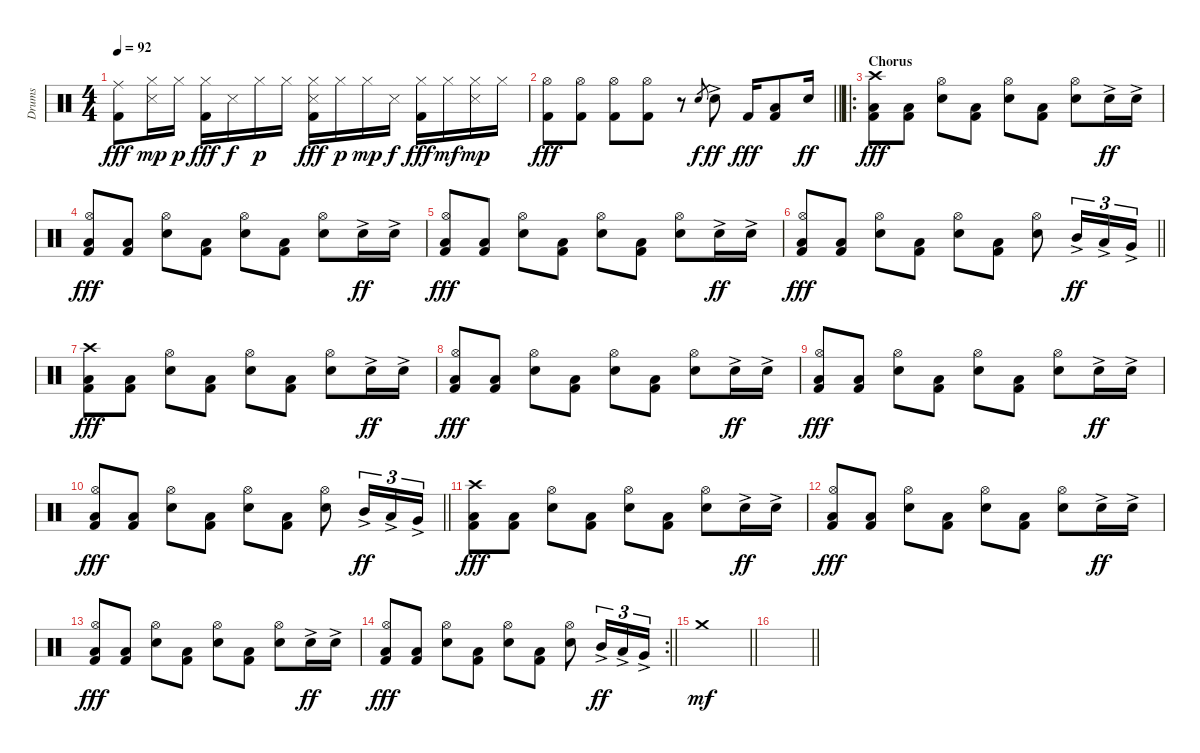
\track ("Drums" "Drums") {instrument percussion}
\staff {score}
\articulation defaults
\ts (4 4)
\tempo 92
\clef neutral
\ks c
("Ride (middle)" "Kick (hit) 2").8{dy fff} ("Snare (side stick) 3" "Hi-Hat (closed)").16{dy mp} "Hi-Hat (closed)".16{dy p} ("Hi-Hat (closed)" "Kick (hit) 2").16{dy fff} "Snare (side stick) 3".16{dy f} "Hi-Hat (closed)".16{dy p} "Hi-Hat (closed)".16 ("Snare (side stick) 3" "Hi-Hat (closed)" "Kick (hit) 2").16{dy fff} "Hi-Hat (closed)".16{dy p} "Hi-Hat (closed)".16{dy mp} "Snare (side stick) 3".16{dy f} ("Hi-Hat (closed)" "Kick (hit) 2").16{dy fff} "Hi-Hat (closed)".16{dy mf} ("Snare (side stick) 3" "Hi-Hat (closed)").16{dy mp} "Hi-Hat (closed)".16 |
\barLineRight lightlight
("Hi-Hat (open)" "Kick (hit) 2").8{dy fff} ("Hi-Hat (open)" "Kick (hit) 2").8 ("Hi-Hat (open)" "Kick (hit) 2").8 ("Hi-Hat (open)" "Kick (hit) 2").8 r.8 "Electric Snare (hit)".8{gr dy f} "Electric Snare (hit)"{ac}.8{dy ff} "Kick (hit) 2".16{dy fff} ("Low Floor Tom (hit)" "Kick (hit) 2").8 "Electric Snare (hit)".16{dy ff} |
\ro
\section ("" "Chorus")
("Crash high (hit)" "Low Floor Tom (hit)" "Kick (hit) 2").8{dy fff} ("Low Floor Tom (hit)" "Kick (hit) 2").8 ("Hi-Hat (open)" "Electric Snare (hit)").8 ("Low Floor Tom (hit)" "Kick (hit) 2").8 ("Hi-Hat (open)" "Electric Snare (hit)").8 ("Low Floor Tom (hit)" "Kick (hit) 2").8 ("Hi-Hat (open)" "Electric Snare (hit)").8 "Electric Snare (hit)"{ac}.16{dy ff} "Electric Snare (hit)"{ac}.16 |
("Hi-Hat (open)" "Low Floor Tom (hit)" "Kick (hit) 2").8{dy fff} ("Low Floor Tom (hit)" "Kick (hit) 2").8 ("Hi-Hat (open)" "Electric Snare (hit)").8 ("Low Floor Tom (hit)" "Kick (hit) 2").8 ("Hi-Hat (open)" "Electric Snare (hit)").8 ("Low Floor Tom (hit)" "Kick (hit) 2").8 ("Hi-Hat (open)" "Electric Snare (hit)").8 "Electric Snare (hit)"{ac}.16{dy ff} "Electric Snare (hit)"{ac}.16 |
("Hi-Hat (open)" "Low Floor Tom (hit)" "Kick (hit) 2").8{dy fff} ("Low Floor Tom (hit)" "Kick (hit) 2").8 ("Hi-Hat (open)" "Electric Snare (hit)").8 ("Low Floor Tom (hit)" "Kick (hit) 2").8 ("Hi-Hat (open)" "Electric Snare (hit)").8 ("Low Floor Tom (hit)" "Kick (hit) 2").8 ("Hi-Hat (open)" "Electric Snare (hit)").8 "Electric Snare (hit)"{ac}.16{dy ff} "Electric Snare (hit)"{ac}.16 |
\barLineRight lightlight
("Hi-Hat (open)" "Low Floor Tom (hit)" "Kick (hit) 2").8{dy fff} ("Low Floor Tom (hit)" "Kick (hit) 2").8 ("Hi-Hat (open)" "Electric Snare (hit)").8 ("Low Floor Tom (hit)" "Kick (hit) 2").8 ("Hi-Hat (open)" "Electric Snare (hit)").8 ("Low Floor Tom (hit)" "Kick (hit) 2").8 ("Hi-Hat (open)" "Electric Snare (hit)").8 "Mid Tom (hit)"{ac}.16{tu (3 2) dy ff} "Low Tom (hit)"{ac}.16{tu (3 2)} "Very Low Tom (hit)"{ac}.16{tu (3 2)} |
\section ("" "")
("Crash high (hit)" "Low Floor Tom (hit)" "Kick (hit) 2").8{dy fff} ("Low Floor Tom (hit)" "Kick (hit) 2").8 ("Hi-Hat (open)" "Electric Snare (hit)").8 ("Low Floor Tom (hit)" "Kick (hit) 2").8 ("Hi-Hat (open)" "Electric Snare (hit)").8 ("Low Floor Tom (hit)" "Kick (hit) 2").8 ("Hi-Hat (open)" "Electric Snare (hit)").8 "Electric Snare (hit)"{ac}.16{dy ff} "Electric Snare (hit)"{ac}.16 |
("Hi-Hat (open)" "Low Floor Tom (hit)" "Kick (hit) 2").8{dy fff} ("Low Floor Tom (hit)" "Kick (hit) 2").8 ("Hi-Hat (open)" "Electric Snare (hit)").8 ("Low Floor Tom (hit)" "Kick (hit) 2").8 ("Hi-Hat (open)" "Electric Snare (hit)").8 ("Low Floor Tom (hit)" "Kick (hit) 2").8 ("Hi-Hat (open)" "Electric Snare (hit)").8 "Electric Snare (hit)"{ac}.16{dy ff} "Electric Snare (hit)"{ac}.16 |
("Hi-Hat (open)" "Low Floor Tom (hit)" "Kick (hit) 2").8{dy fff} ("Low Floor Tom (hit)" "Kick (hit) 2").8 ("Hi-Hat (open)" "Electric Snare (hit)").8 ("Low Floor Tom (hit)" "Kick (hit) 2").8 ("Hi-Hat (open)" "Electric Snare (hit)").8 ("Low Floor Tom (hit)" "Kick (hit) 2").8 ("Hi-Hat (open)" "Electric Snare (hit)").8 "Electric Snare (hit)"{ac}.16{dy ff} "Electric Snare (hit)"{ac}.16 |
\barLineRight lightlight
("Hi-Hat (open)" "Low Floor Tom (hit)" "Kick (hit) 2").8{dy fff} ("Low Floor Tom (hit)" "Kick (hit) 2").8 ("Hi-Hat (open)" "Electric Snare (hit)").8 ("Low Floor Tom (hit)" "Kick (hit) 2").8 ("Hi-Hat (open)" "Electric Snare (hit)").8 ("Low Floor Tom (hit)" "Kick (hit) 2").8 ("Hi-Hat (open)" "Electric Snare (hit)").8 "Mid Tom (hit)"{ac}.16{tu (3 2) dy ff} "Low Tom (hit)"{ac}.16{tu (3 2)} "Very Low Tom (hit)"{ac}.16{tu (3 2)} |
\section ("" "")
("Crash high (hit)" "Low Floor Tom (hit)" "Kick (hit) 2").8{dy fff} ("Low Floor Tom (hit)" "Kick (hit) 2").8 ("Hi-Hat (open)" "Electric Snare (hit)").8 ("Low Floor Tom (hit)" "Kick (hit) 2").8 ("Hi-Hat (open)" "Electric Snare (hit)").8 ("Low Floor Tom (hit)" "Kick (hit) 2").8 ("Hi-Hat (open)" "Electric Snare (hit)").8 "Electric Snare (hit)"{ac}.16{dy ff} "Electric Snare (hit)"{ac}.16 |
("Hi-Hat (open)" "Low Floor Tom (hit)" "Kick (hit) 2").8{dy fff} ("Low Floor Tom (hit)" "Kick (hit) 2").8 ("Hi-Hat (open)" "Electric Snare (hit)").8 ("Low Floor Tom (hit)" "Kick (hit) 2").8 ("Hi-Hat (open)" "Electric Snare (hit)").8 ("Low Floor Tom (hit)" "Kick (hit) 2").8 ("Hi-Hat (open)" "Electric Snare (hit)").8 "Electric Snare (hit)"{ac}.16{dy ff} "Electric Snare (hit)"{ac}.16 |
("Hi-Hat (open)" "Low Floor Tom (hit)" "Kick (hit) 2").8{dy fff} ("Low Floor Tom (hit)" "Kick (hit) 2").8 ("Hi-Hat (open)" "Electric Snare (hit)").8 ("Low Floor Tom (hit)" "Kick (hit) 2").8 ("Hi-Hat (open)" "Electric Snare (hit)").8 ("Low Floor Tom (hit)" "Kick (hit) 2").8 ("Hi-Hat (open)" "Electric Snare (hit)").8 "Electric Snare (hit)"{ac}.16{dy ff} "Electric Snare (hit)"{ac}.16 |
\rc 2
\barLineRight lightlight
("Hi-Hat (open)" "Low Floor Tom (hit)" "Kick (hit) 2").8{dy fff} ("Low Floor Tom (hit)" "Kick (hit) 2").8 ("Hi-Hat (open)" "Electric Snare (hit)").8 ("Low Floor Tom (hit)" "Kick (hit) 2").8 ("Hi-Hat (open)" "Electric Snare (hit)").8 ("Low Floor Tom (hit)" "Kick (hit) 2").8 ("Hi-Hat (open)" "Electric Snare (hit)").8 "Mid Tom (hit)"{ac}.16{tu (3 2) dy ff} "Low Tom (hit)"{ac}.16{tu (3 2)} "Very Low Tom (hit)"{ac}.16{tu (3 2)} |
\barLineRight lightlight "Crash medium (hit)".1{dy mf}
|
\barLineRight lightlight
